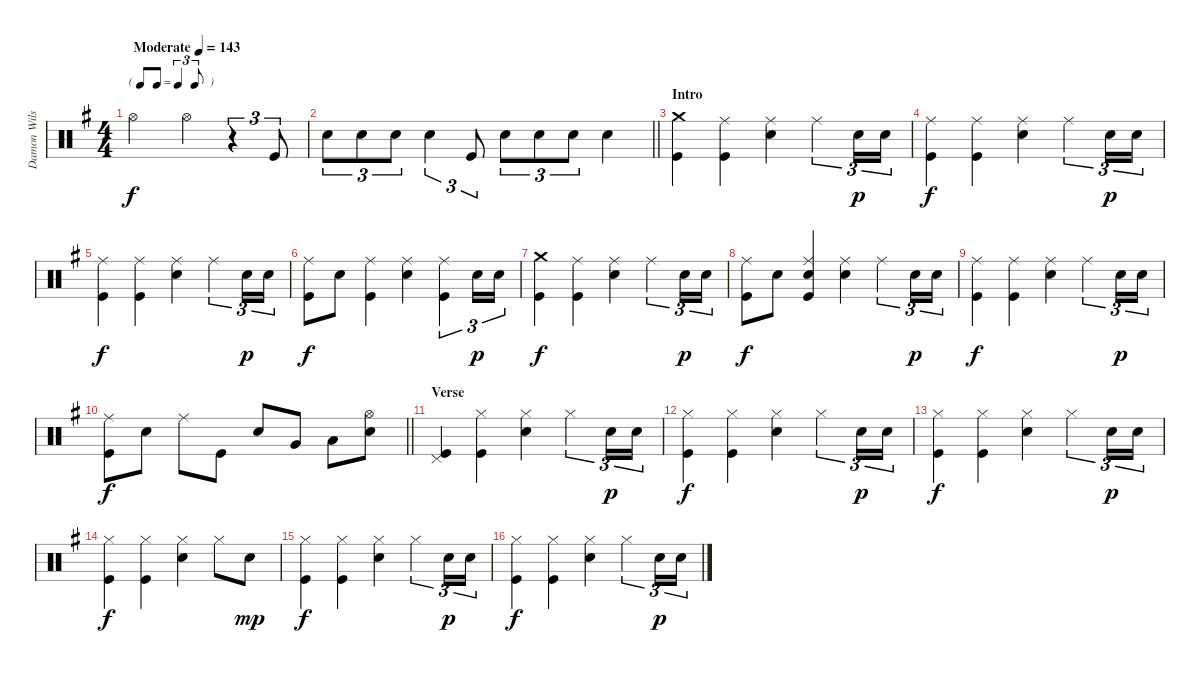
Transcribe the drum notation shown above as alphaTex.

\track ("Damon Wilson" "Damon Wils") {instrument percussion}
\staff {score}
\articulation defaults
\ts (4 4)
\tf triplet8th
\tempo (143 "Moderate")
\clef neutral
\ks g "Hi-Hat (open)".2{dy f} "Hi-Hat (open)".4
r.4{tu (3 2)} "Kick (hit)".8{tu (3 2)} |
\barLineRight lightlight "Electric Snare (hit)".8{tu (3 2)} "Electric Snare (hit)".8{tu (3 2)} "Electric Snare (hit)".8{tu (3 2)} "Electric Snare (hit)".4{tu (3 2)} "Kick (hit)".8{tu (3 2)} "Electric Snare (hit)".8{tu (3 2)} "Electric Snare (hit)".8{tu (3 2)} "Electric Snare (hit)".8{tu (3 2)} "Electric Snare (hit)".4
|
\section ("" "Intro")
("Crash medium (hit)" "Kick (hit)").4 ("Ride (middle)" "Kick (hit)").4 ("Ride (middle)" "Electric Snare (hit)").4 "Ride (middle)".4{tu (3 2)} "Electric Snare (hit)".16{tu (3 2) dy p} "Electric Snare (hit)".16{tu (3 2)} |
("Ride (middle)" "Kick (hit)").4{dy f} ("Ride (middle)" "Kick (hit)").4 ("Ride (middle)" "Electric Snare (hit)").4 "Ride (middle)".4{tu (3 2)} "Electric Snare (hit)".16{tu (3 2) dy p} "Electric Snare (hit)".16{tu (3 2)} |
("Ride (middle)" "Kick (hit)").4{dy f} ("Ride (middle)" "Kick (hit)").4 ("Ride (middle)" "Electric Snare (hit)").4 "Ride (middle)".4{tu (3 2)} "Electric Snare (hit)".16{tu (3 2) dy p} "Electric Snare (hit)".16{tu (3 2)} |
("Ride (middle)" "Kick (hit)").8{dy f} "Electric Snare (hit)".8 ("Ride (middle)" "Kick (hit)").4 ("Ride (middle)" "Electric Snare (hit)").4 ("Ride (middle)" "Kick (hit)").4{tu (3 2)} "Electric Snare (hit)".16{tu (3 2) dy p} "Electric Snare (hit)".16{tu (3 2)} |
("Crash medium (hit)" "Kick (hit)").4{dy f} ("Ride (middle)" "Kick (hit)").4 ("Ride (middle)" "Electric Snare (hit)").4 "Ride (middle)".4{tu (3 2)} "Electric Snare (hit)".16{tu (3 2) dy p} "Electric Snare (hit)".16{tu (3 2)} |
("Ride (middle)" "Kick (hit)").8{dy f} "Electric Snare (hit)".8 ("Snare (hit)" "Ride (middle)" "Kick (hit)").4 ("Ride (middle)" "Electric Snare (hit)").4 "Ride (middle)".4{tu (3 2)} "Electric Snare (hit)".16{tu (3 2) dy p} "Electric Snare (hit)".16{tu (3 2)} |
("Ride (middle)" "Kick (hit)").4{dy f} ("Ride (middle)" "Kick (hit)").4 ("Ride (middle)" "Electric Snare (hit)").4 "Ride (middle)".4{tu (3 2)} "Electric Snare (hit)".16{tu (3 2) dy p} "Electric Snare (hit)".16{tu (3 2)} |
\barLineRight lightlight
("Ride (middle)" "Kick (hit)").8{dy f} "Electric Snare (hit)".8 "Ride (middle)".8 "Kick (hit)".8 "Electric Snare (hit)".8 "Very Low Tom (hit)".8 "Low Floor Tom (hit)".8 ("Hi-Hat (open)" "Electric Snare (hit)").8 |
\section ("" "Verse")
("Pedal Hi-Hat (hit)" "Kick (hit)").4 ("Hi-Hat (closed)" "Kick (hit)").4 ("Hi-Hat (closed)" "Electric Snare (hit)").4 "Hi-Hat (closed)".4{tu (3 2)} "Electric Snare (hit)".16{tu (3 2) dy p} "Electric Snare (hit)".16{tu (3 2)} |
("Hi-Hat (closed)" "Kick (hit)").4{dy f} ("Hi-Hat (closed)" "Kick (hit)").4 ("Hi-Hat (closed)" "Electric Snare (hit)").4 "Hi-Hat (closed)".4{tu (3 2)} "Electric Snare (hit)".16{tu (3 2) dy p} "Electric Snare (hit)".16{tu (3 2)} |
("Hi-Hat (closed)" "Kick (hit)").4{dy f} ("Hi-Hat (closed)" "Kick (hit)").4 ("Hi-Hat (closed)" "Electric Snare (hit)").4 "Hi-Hat (closed)".4{tu (3 2)} "Electric Snare (hit)".16{tu (3 2) dy p} "Electric Snare (hit)".16{tu (3 2)} |
("Hi-Hat (closed)" "Kick (hit)").4{dy f} ("Hi-Hat (closed)" "Kick (hit)").4 ("Hi-Hat (closed)" "Electric Snare (hit)").4 "Hi-Hat (closed)".8 "Electric Snare (hit)".8{dy mp} |
("Hi-Hat (closed)" "Kick (hit)").4{dy f} ("Hi-Hat (closed)" "Kick (hit)").4 ("Hi-Hat (closed)" "Electric Snare (hit)").4 "Hi-Hat (closed)".4{tu (3 2)} "Electric Snare (hit)".16{tu (3 2) dy p} "Electric Snare (hit)".16{tu (3 2)} |
("Hi-Hat (closed)" "Kick (hit)").4{dy f} ("Hi-Hat (closed)" "Kick (hit)").4 ("Hi-Hat (closed)" "Electric Snare (hit)").4 "Hi-Hat (closed)".4{tu (3 2)} "Electric Snare (hit)".16{tu (3 2) dy p} "Electric Snare (hit)".16{tu (3 2)}
